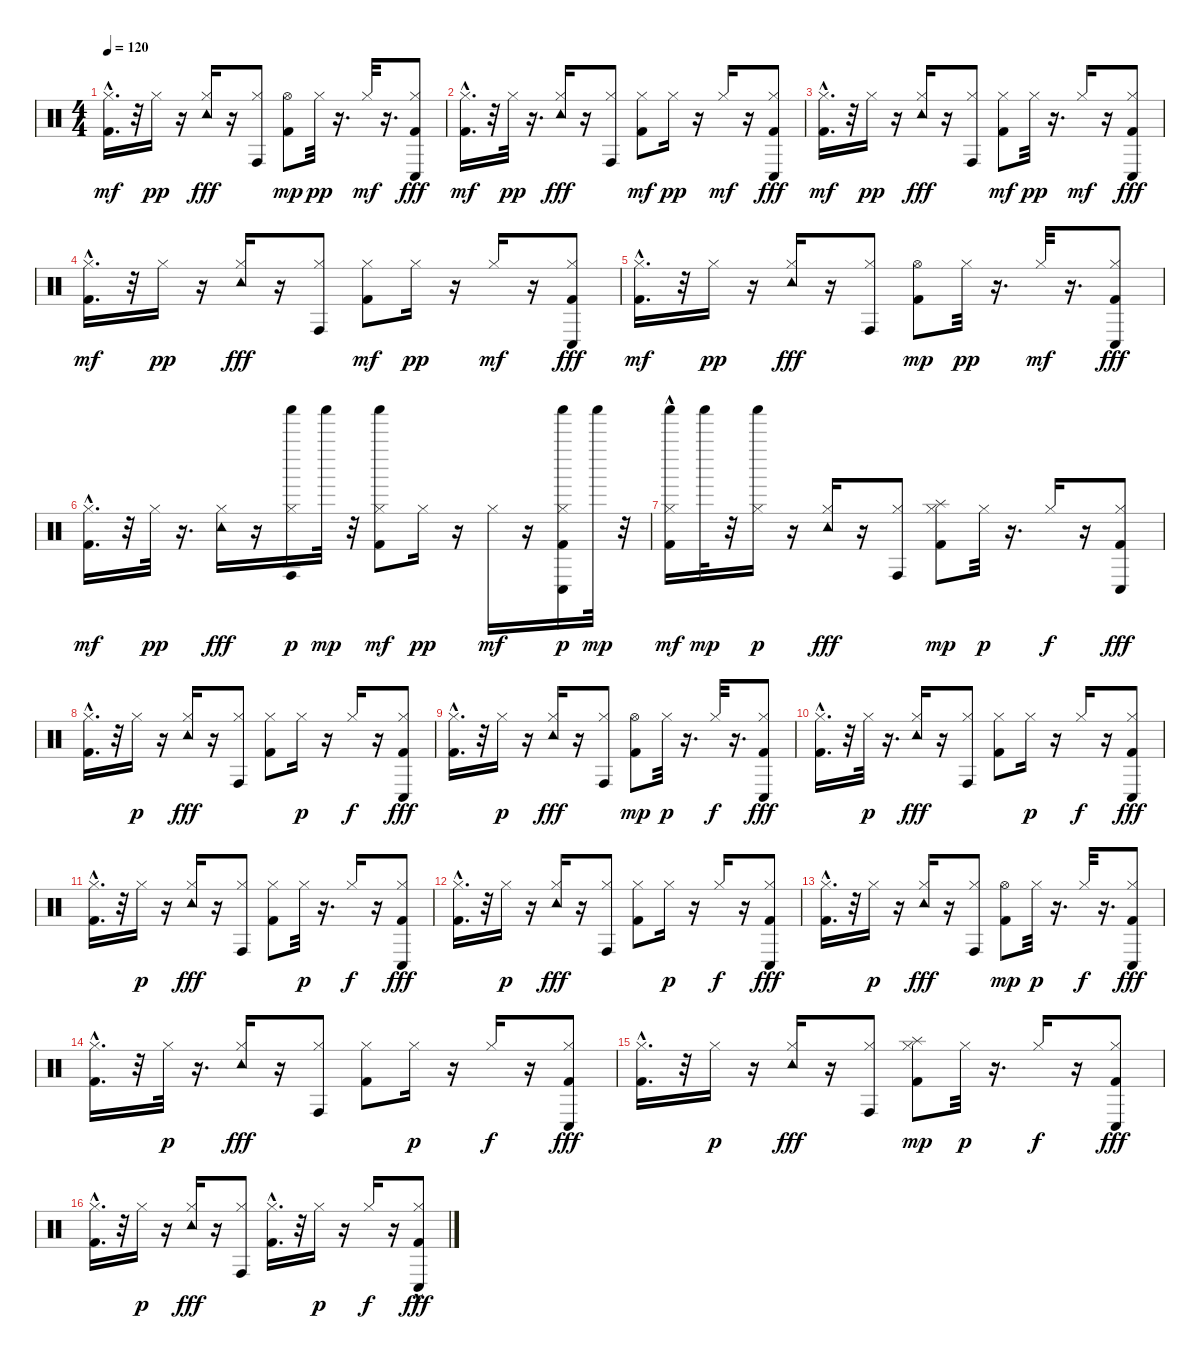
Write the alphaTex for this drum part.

\track "" {instrument percussion}
\staff {score}
\articulation defaults
\ts (4 4)
\tempo 120
\clef neutral
\ks c
("Kick (hit) 2"{hac} "Hi-Hat (closed)").16{d dy mf} r.32 "Hi-Hat (closed)".16{dy pp} r.16 ("Hi-Hat (closed)" "Tambourine (hit)").16{dy fff} r.16 ("Hi-Hat (closed)" "Conga high (hit)").8 ("Kick (hit) 2" "Hi-Hat (open)").8{dy mp} "Hi-Hat (closed)".32{dy pp} r.16{d} "Hi-Hat (closed)".32{dy mf} r.16{d} ("Kick (hit) 2" "Hi-Hat (closed)" "Conga low (hit)").8{dy fff} |
("Kick (hit) 2"{hac} "Hi-Hat (closed)").16{d dy mf} r.32 "Hi-Hat (closed)".32{dy pp} r.16{d} ("Hi-Hat (closed)" "Tambourine (hit)").16{dy fff} r.16 ("Hi-Hat (closed)" "Conga high (hit)").8 ("Kick (hit) 2" "Hi-Hat (closed)").8{dy mf} "Hi-Hat (closed)".16{dy pp} r.16 "Hi-Hat (closed)".16{dy mf} r.16 ("Kick (hit) 2" "Hi-Hat (closed)" "Conga low (hit)").8{dy fff} |
("Kick (hit) 2"{hac} "Hi-Hat (closed)").16{d dy mf} r.32 "Hi-Hat (closed)".16{dy pp} r.16 ("Hi-Hat (closed)" "Tambourine (hit)").16{dy fff} r.16 ("Hi-Hat (closed)" "Conga high (hit)").8 ("Kick (hit) 2" "Hi-Hat (closed)").8{dy mf} "Hi-Hat (closed)".32{dy pp} r.16{d} "Hi-Hat (closed)".16{dy mf} r.16 ("Kick (hit) 2" "Hi-Hat (closed)" "Conga low (hit)").8{dy fff} |
("Kick (hit) 2"{hac} "Hi-Hat (closed)").16{d dy mf} r.32 "Hi-Hat (closed)".16{dy pp} r.16 ("Hi-Hat (closed)" "Tambourine (hit)").16{dy fff} r.16 ("Hi-Hat (closed)" "Conga high (hit)").8 ("Kick (hit) 2" "Hi-Hat (closed)").8{dy mf} "Hi-Hat (closed)".16{dy pp} r.16 "Hi-Hat (closed)".16{dy mf} r.16 ("Kick (hit) 2" "Hi-Hat (closed)" "Conga low (hit)").8{dy fff} |
("Kick (hit) 2"{hac} "Hi-Hat (closed)").16{d dy mf} r.32 "Hi-Hat (closed)".16{dy pp} r.16 ("Hi-Hat (closed)" "Tambourine (hit)").16{dy fff} r.16 ("Hi-Hat (closed)" "Conga high (hit)").8 ("Kick (hit) 2" "Hi-Hat (open)").8{dy mp} "Hi-Hat (closed)".32{dy pp} r.16{d} "Hi-Hat (closed)".32{dy mf} r.16{d} ("Kick (hit) 2" "Hi-Hat (closed)" "Conga low (hit)").8{dy fff} |
("Kick (hit) 2"{hac} "Hi-Hat (closed)").16{d dy mf} r.32 "Hi-Hat (closed)".32{dy pp} r.16{d} ("Hi-Hat (closed)" "Tambourine (hit)").16{dy fff} r.16 ("Hi-Hat (closed)" "Conga high (hit)" "Shaker (hit)").16{dy p} "Shaker (hit)".32{dy mp} r.32 ("Kick (hit) 2" "Hi-Hat (closed)" "Shaker (hit)").8{dy mf} "Hi-Hat (closed)".16{dy pp} r.16 "Hi-Hat (closed)".16{dy mf} r.16 ("Kick (hit) 2" "Hi-Hat (closed)" "Conga low (hit)" "Shaker (hit)").16{dy p} "Shaker (hit)".32{dy mp} r.32 |
("Kick (hit) 2"{hac} "Hi-Hat (closed)" "Shaker (hit)").16{dy mf} "Shaker (hit)".32{dy mp} r.32 ("Hi-Hat (closed)" "Shaker (hit)").16{dy p} r.16 ("Hi-Hat (closed)" "Tambourine (hit)").16{dy fff} r.16 ("Hi-Hat (closed)" "Conga high (hit)").8 ("Kick (hit) 2" "Hi-Hat (closed)" "Splash (hit)").8{dy mp} "Hi-Hat (closed)".32{dy p} r.16{d} "Hi-Hat (closed)".16{dy f} r.16 ("Kick (hit) 2" "Hi-Hat (closed)" "Conga low (hit)").8{dy fff} |
("Kick (hit) 2"{hac} "Hi-Hat (closed)").16{d} r.32 "Hi-Hat (closed)".16{dy p} r.16 ("Hi-Hat (closed)" "Tambourine (hit)").16{dy fff} r.16 ("Hi-Hat (closed)" "Conga high (hit)").8 ("Kick (hit) 2" "Hi-Hat (closed)").8 "Hi-Hat (closed)".16{dy p} r.16 "Hi-Hat (closed)".16{dy f} r.16 ("Kick (hit) 2" "Hi-Hat (closed)" "Conga low (hit)").8{dy fff} |
("Kick (hit) 2"{hac} "Hi-Hat (closed)").16{d} r.32 "Hi-Hat (closed)".16{dy p} r.16 ("Hi-Hat (closed)" "Tambourine (hit)").16{dy fff} r.16 ("Hi-Hat (closed)" "Conga high (hit)").8 ("Kick (hit) 2" "Hi-Hat (open)").8{dy mp} "Hi-Hat (closed)".32{dy p} r.16{d} "Hi-Hat (closed)".32{dy f} r.16{d} ("Kick (hit) 2" "Hi-Hat (closed)" "Conga low (hit)").8{dy fff} |
("Kick (hit) 2"{hac} "Hi-Hat (closed)").16{d} r.32 "Hi-Hat (closed)".32{dy p} r.16{d} ("Hi-Hat (closed)" "Tambourine (hit)").16{dy fff} r.16 ("Hi-Hat (closed)" "Conga high (hit)").8 ("Kick (hit) 2" "Hi-Hat (closed)").8 "Hi-Hat (closed)".16{dy p} r.16 "Hi-Hat (closed)".16{dy f} r.16 ("Kick (hit) 2" "Hi-Hat (closed)" "Conga low (hit)").8{dy fff} |
("Kick (hit) 2"{hac} "Hi-Hat (closed)").16{d} r.32 "Hi-Hat (closed)".16{dy p} r.16 ("Hi-Hat (closed)" "Tambourine (hit)").16{dy fff} r.16 ("Hi-Hat (closed)" "Conga high (hit)").8 ("Kick (hit) 2" "Hi-Hat (closed)").8 "Hi-Hat (closed)".32{dy p} r.16{d} "Hi-Hat (closed)".16{dy f} r.16 ("Kick (hit) 2" "Hi-Hat (closed)" "Conga low (hit)").8{dy fff} |
("Kick (hit) 2"{hac} "Hi-Hat (closed)").16{d} r.32 "Hi-Hat (closed)".16{dy p} r.16 ("Hi-Hat (closed)" "Tambourine (hit)").16{dy fff} r.16 ("Hi-Hat (closed)" "Conga high (hit)").8 ("Kick (hit) 2" "Hi-Hat (closed)").8 "Hi-Hat (closed)".16{dy p} r.16 "Hi-Hat (closed)".16{dy f} r.16 ("Kick (hit) 2" "Hi-Hat (closed)" "Conga low (hit)").8{dy fff} |
("Kick (hit) 2"{hac} "Hi-Hat (closed)").16{d} r.32 "Hi-Hat (closed)".16{dy p} r.16 ("Hi-Hat (closed)" "Tambourine (hit)").16{dy fff} r.16 ("Hi-Hat (closed)" "Conga high (hit)").8 ("Kick (hit) 2" "Hi-Hat (open)").8{dy mp} "Hi-Hat (closed)".32{dy p} r.16{d} "Hi-Hat (closed)".32{dy f} r.16{d} ("Kick (hit) 2" "Hi-Hat (closed)" "Conga low (hit)").8{dy fff} |
("Kick (hit) 2"{hac} "Hi-Hat (closed)").16{d} r.32 "Hi-Hat (closed)".32{dy p} r.16{d} ("Hi-Hat (closed)" "Tambourine (hit)").16{dy fff} r.16 ("Hi-Hat (closed)" "Conga high (hit)").8 ("Kick (hit) 2" "Hi-Hat (closed)").8 "Hi-Hat (closed)".16{dy p} r.16 "Hi-Hat (closed)".16{dy f} r.16 ("Kick (hit) 2" "Hi-Hat (closed)" "Conga low (hit)").8{dy fff} |
("Kick (hit) 2"{hac} "Hi-Hat (closed)").16{d} r.32 "Hi-Hat (closed)".16{dy p} r.16 ("Hi-Hat (closed)" "Tambourine (hit)").16{dy fff} r.16 ("Hi-Hat (closed)" "Conga high (hit)").8 ("Kick (hit) 2" "Hi-Hat (closed)" "Splash (hit)").8{dy mp} "Hi-Hat (closed)".32{dy p} r.16{d} "Hi-Hat (closed)".16{dy f} r.16 ("Kick (hit) 2" "Hi-Hat (closed)" "Conga low (hit)").8{dy fff} |
("Kick (hit) 2"{hac} "Hi-Hat (closed)").16{d} r.32 "Hi-Hat (closed)".16{dy p} r.16 ("Hi-Hat (closed)" "Tambourine (hit)").16{dy fff} r.16 ("Hi-Hat (closed)" "Conga high (hit)").8 ("Kick (hit) 2"{hac} "Hi-Hat (closed)").16{d} r.32 "Hi-Hat (closed)".16{dy p} r.16 "Hi-Hat (closed)".16{dy f} r.16 ("Kick (hit) 2" "Hi-Hat (closed)" "Conga low (hit)"{hac}).8{dy fff}
